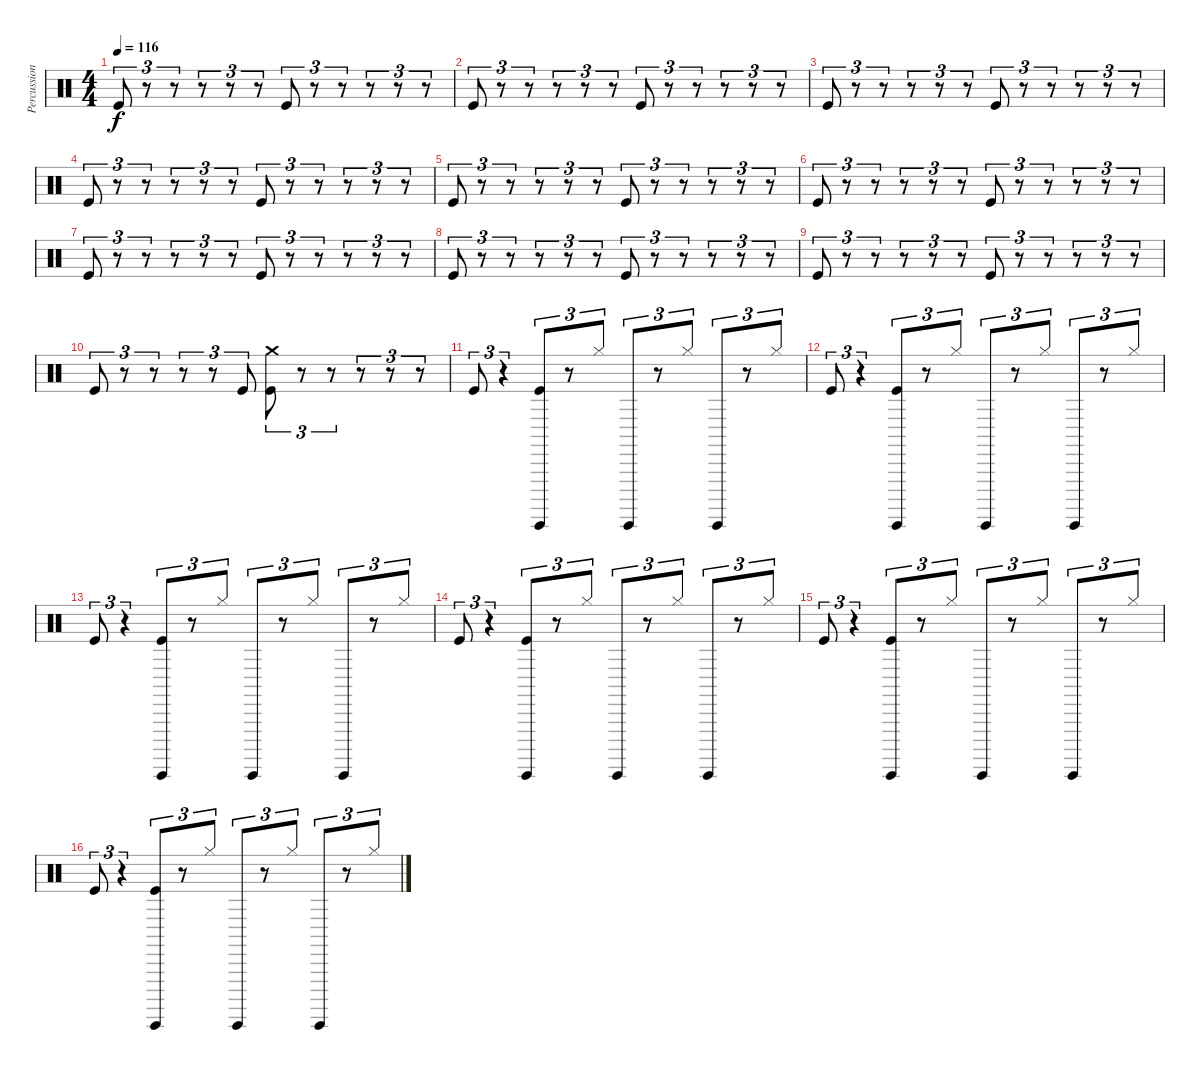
\track ("Percussions" "Percussion") {instrument percussion}
\staff {score}
\articulation defaults
\ts (4 4)
\tempo 116
\clef neutral
\ks c "Kick (hit)".8{tu (3 2) dy f}
r.8{tu (3 2)} r.8{tu (3 2)} r.8{tu (3 2)} r.8{tu (3 2)} r.8{tu (3 2)} "Kick (hit)".8{tu (3 2)} r.8{tu (3 2)} r.8{tu (3 2)} r.8{tu (3 2)} r.8{tu (3 2)} r.8{tu (3 2)} |
"Kick (hit)".8{tu (3 2)} r.8{tu (3 2)} r.8{tu (3 2)} r.8{tu (3 2)} r.8{tu (3 2)} r.8{tu (3 2)} "Kick (hit)".8{tu (3 2)} r.8{tu (3 2)} r.8{tu (3 2)} r.8{tu (3 2)} r.8{tu (3 2)} r.8{tu (3 2)} |
"Kick (hit)".8{tu (3 2)} r.8{tu (3 2)} r.8{tu (3 2)} r.8{tu (3 2)} r.8{tu (3 2)} r.8{tu (3 2)} "Kick (hit)".8{tu (3 2)} r.8{tu (3 2)} r.8{tu (3 2)} r.8{tu (3 2)} r.8{tu (3 2)} r.8{tu (3 2)} |
"Kick (hit)".8{tu (3 2)} r.8{tu (3 2)} r.8{tu (3 2)} r.8{tu (3 2)} r.8{tu (3 2)} r.8{tu (3 2)} "Kick (hit)".8{tu (3 2)} r.8{tu (3 2)} r.8{tu (3 2)} r.8{tu (3 2)} r.8{tu (3 2)} r.8{tu (3 2)} |
"Kick (hit)".8{tu (3 2)} r.8{tu (3 2)} r.8{tu (3 2)} r.8{tu (3 2)} r.8{tu (3 2)} r.8{tu (3 2)} "Kick (hit)".8{tu (3 2)} r.8{tu (3 2)} r.8{tu (3 2)} r.8{tu (3 2)} r.8{tu (3 2)} r.8{tu (3 2)} |
"Kick (hit)".8{tu (3 2)} r.8{tu (3 2)} r.8{tu (3 2)} r.8{tu (3 2)} r.8{tu (3 2)} r.8{tu (3 2)} "Kick (hit)".8{tu (3 2)} r.8{tu (3 2)} r.8{tu (3 2)} r.8{tu (3 2)} r.8{tu (3 2)} r.8{tu (3 2)} |
"Kick (hit)".8{tu (3 2)} r.8{tu (3 2)} r.8{tu (3 2)} r.8{tu (3 2)} r.8{tu (3 2)} r.8{tu (3 2)} "Kick (hit)".8{tu (3 2)} r.8{tu (3 2)} r.8{tu (3 2)} r.8{tu (3 2)} r.8{tu (3 2)} r.8{tu (3 2)} |
"Kick (hit)".8{tu (3 2)} r.8{tu (3 2)} r.8{tu (3 2)} r.8{tu (3 2)} r.8{tu (3 2)} r.8{tu (3 2)} "Kick (hit)".8{tu (3 2)} r.8{tu (3 2)} r.8{tu (3 2)} r.8{tu (3 2)} r.8{tu (3 2)} r.8{tu (3 2)} |
"Kick (hit)".8{tu (3 2)} r.8{tu (3 2)} r.8{tu (3 2)} r.8{tu (3 2)} r.8{tu (3 2)} r.8{tu (3 2)} "Kick (hit)".8{tu (3 2)} r.8{tu (3 2)} r.8{tu (3 2)} r.8{tu (3 2)} r.8{tu (3 2)} r.8{tu (3 2)} |
"Kick (hit)".8{tu (3 2)} r.8{tu (3 2)} r.8{tu (3 2)} r.8{tu (3 2)} r.8{tu (3 2)} "Kick (hit)".8{tu (3 2)} ("Crash medium (hit)" "Kick (hit)").8{tu (3 2)} r.8{tu (3 2)} r.8{tu (3 2)} r.8{tu (3 2)} r.8{tu (3 2)} r.8{tu (3 2)} |
"Kick (hit)".8{tu (3 2)} r.4{tu (3 2)} ("Guiro (hit)" "Kick (hit)").8{tu (3 2)} r.8{tu (3 2)} "Hi-Hat (closed)".8{tu (3 2)} "Guiro (hit)".8{tu (3 2)} r.8{tu (3 2)} "Hi-Hat (closed)".8{tu (3 2)} "Guiro (hit)".8{tu (3 2)} r.8{tu (3 2)} "Hi-Hat (closed)".8{tu (3 2)} |
"Kick (hit)".8{tu (3 2)} r.4{tu (3 2)} ("Guiro (hit)" "Kick (hit)").8{tu (3 2)} r.8{tu (3 2)} "Hi-Hat (closed)".8{tu (3 2)} "Guiro (hit)".8{tu (3 2)} r.8{tu (3 2)} "Hi-Hat (closed)".8{tu (3 2)} "Guiro (hit)".8{tu (3 2)} r.8{tu (3 2)} "Hi-Hat (closed)".8{tu (3 2)} |
"Kick (hit)".8{tu (3 2)} r.4{tu (3 2)} ("Guiro (hit)" "Kick (hit)").8{tu (3 2)} r.8{tu (3 2)} "Hi-Hat (closed)".8{tu (3 2)} "Guiro (hit)".8{tu (3 2)} r.8{tu (3 2)} "Hi-Hat (closed)".8{tu (3 2)} "Guiro (hit)".8{tu (3 2)} r.8{tu (3 2)} "Hi-Hat (closed)".8{tu (3 2)} |
"Kick (hit)".8{tu (3 2)} r.4{tu (3 2)} ("Guiro (hit)" "Kick (hit)").8{tu (3 2)} r.8{tu (3 2)} "Hi-Hat (closed)".8{tu (3 2)} "Guiro (hit)".8{tu (3 2)} r.8{tu (3 2)} "Hi-Hat (closed)".8{tu (3 2)} "Guiro (hit)".8{tu (3 2)} r.8{tu (3 2)} "Hi-Hat (closed)".8{tu (3 2)} |
"Kick (hit)".8{tu (3 2)} r.4{tu (3 2)} ("Guiro (hit)" "Kick (hit)").8{tu (3 2)} r.8{tu (3 2)} "Hi-Hat (closed)".8{tu (3 2)} "Guiro (hit)".8{tu (3 2)} r.8{tu (3 2)} "Hi-Hat (closed)".8{tu (3 2)} "Guiro (hit)".8{tu (3 2)} r.8{tu (3 2)} "Hi-Hat (closed)".8{tu (3 2)} |
"Kick (hit)".8{tu (3 2)} r.4{tu (3 2)} ("Guiro (hit)" "Kick (hit)").8{tu (3 2)} r.8{tu (3 2)} "Hi-Hat (closed)".8{tu (3 2)} "Guiro (hit)".8{tu (3 2)} r.8{tu (3 2)} "Hi-Hat (closed)".8{tu (3 2)} "Guiro (hit)".8{tu (3 2)} r.8{tu (3 2)} "Hi-Hat (closed)".8{tu (3 2)}
